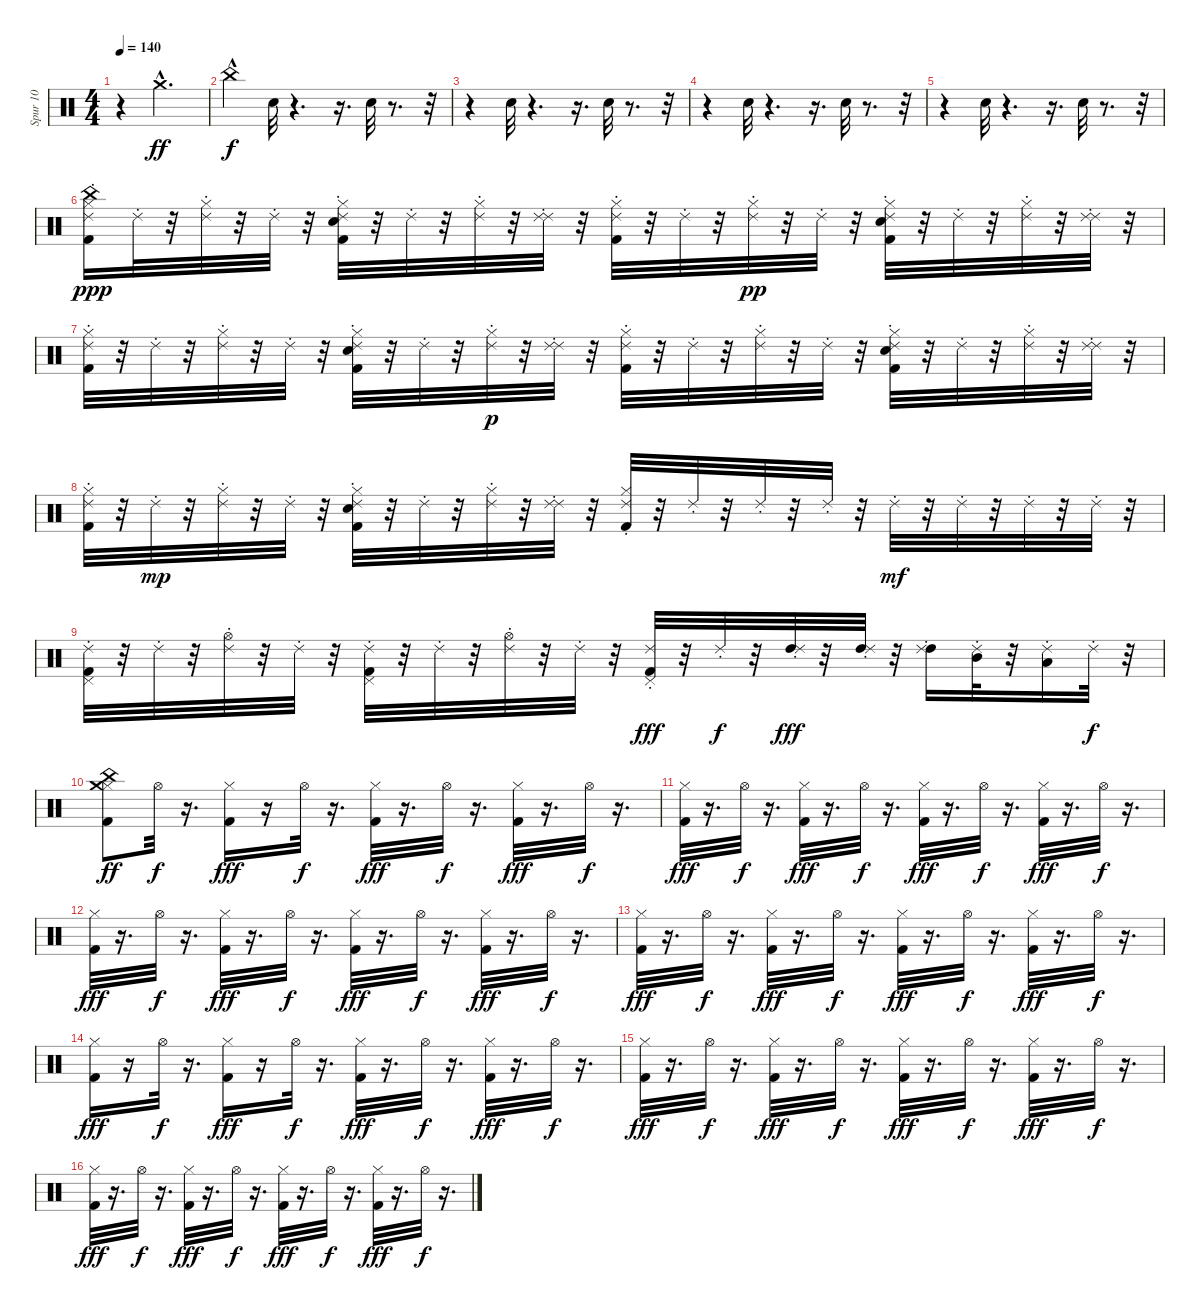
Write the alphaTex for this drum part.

\track ("Spur 10" "Spur 10") {instrument percussion}
\staff {score}
\articulation defaults
\ts (4 4)
\tempo 140
\clef neutral
\ks c
r.4{dy ff} "Crash medium (hit)"{hac}.2{d} |
"China (hit)"{hac}.4{dy f} "Hand Clap (hit)".32 r.4{d} r.16{d} "Hand Clap (hit)".32 r.8{d} r.32 |
r.4 "Hand Clap (hit)".32 r.4{d} r.16{d} "Hand Clap (hit)".32 r.8{d} r.32 |
r.4 "Hand Clap (hit)".32 r.4{d} r.16{d} "Hand Clap (hit)".32 r.8{d} r.32 |
r.4 "Hand Clap (hit)".32 r.4{d} r.16{d} "Hand Clap (hit)".32 r.8{d} r.32 |
("Kick (hit) 2" "Hi-Hat (closed)" "China (hit)" "Ride (choke) 2").16{dy ppp} "Ride (choke) 2".32 r.32 ("Hi-Hat (closed)" "Ride (choke) 2").32 r.32 "Ride (choke) 2".32 r.32 ("Kick (hit) 2" "Hi-Hat (closed)" "Ride (choke) 2" "Hand Clap (hit)").32 r.32 "Ride (choke) 2".32 r.32 ("Hi-Hat (closed)" "Ride (choke) 2").32 r.32 ("Ride (choke) 2" "Ride (choke) 2").32 r.32 ("Kick (hit) 2" "Hi-Hat (closed)" "Ride (choke) 2").32 r.32 "Ride (choke) 2".32 r.32 ("Hi-Hat (closed)" "Ride (choke) 2").32{dy pp} r.32 "Ride (choke) 2".32 r.32 ("Kick (hit) 2" "Hi-Hat (closed)" "Ride (choke) 2" "Hand Clap (hit)").32 r.32 "Ride (choke) 2".32 r.32 ("Hi-Hat (closed)" "Ride (choke) 2").32 r.32 ("Ride (choke) 2" "Ride (choke) 2").32 r.32 |
("Kick (hit) 2" "Hi-Hat (closed)" "Ride (choke) 2").32 r.32 "Ride (choke) 2".32 r.32 ("Hi-Hat (closed)" "Ride (choke) 2").32 r.32 "Ride (choke) 2".32 r.32 ("Kick (hit) 2" "Hi-Hat (closed)" "Ride (choke) 2" "Hand Clap (hit)").32 r.32 "Ride (choke) 2".32 r.32 ("Hi-Hat (closed)" "Ride (choke) 2").32{dy p} r.32 ("Ride (choke) 2" "Ride (choke) 2").32 r.32 ("Kick (hit) 2" "Hi-Hat (closed)" "Ride (choke) 2").32 r.32 "Ride (choke) 2".32 r.32 ("Hi-Hat (closed)" "Ride (choke) 2").32 r.32 "Ride (choke) 2".32 r.32 ("Kick (hit) 2" "Hi-Hat (closed)" "Ride (choke) 2" "Hand Clap (hit)").32 r.32 "Ride (choke) 2".32 r.32 ("Hi-Hat (closed)" "Ride (choke) 2").32 r.32 ("Ride (choke) 2" "Ride (choke) 2").32 r.32 |
("Kick (hit) 2" "Hi-Hat (closed)" "Ride (choke) 2").32 r.32 "Ride (choke) 2".32{dy mp} r.32 ("Hi-Hat (closed)" "Ride (choke) 2").32 r.32 "Ride (choke) 2".32 r.32 ("Kick (hit) 2" "Hi-Hat (closed)" "Ride (choke) 2" "Hand Clap (hit)").32 r.32 "Ride (choke) 2".32 r.32 ("Hi-Hat (closed)" "Ride (choke) 2").32 r.32 ("Ride (choke) 2" "Ride (choke) 2").32 r.32 ("Kick (hit) 2" "Hi-Hat (closed)" "Ride (choke) 2").32 r.32 "Ride (choke) 2".32 r.32 "Ride (choke) 2".32 r.32 "Ride (choke) 2".32 r.32 "Ride (choke) 2".32{dy mf} r.32 "Ride (choke) 2".32 r.32 "Ride (choke) 2".32 r.32 "Ride (choke) 2".32 r.32 |
("Kick (hit) 2" "Pedal Hi-Hat (hit)" "Ride (choke) 2").32 r.32 "Ride (choke) 2".32 r.32 ("Hi-Hat (open)" "Ride (choke) 2").32 r.32 "Ride (choke) 2".32 r.32 ("Kick (hit) 2" "Pedal Hi-Hat (hit)" "Ride (choke) 2").32 r.32 "Ride (choke) 2".32 r.32 ("Hi-Hat (open)" "Ride (choke) 2").32 r.32 "Ride (choke) 2".32 r.32 ("Kick (hit) 2" "Pedal Hi-Hat (hit)" "Ride (choke) 2").32{dy fff} r.32 "Ride (choke) 2".32{dy f} r.32 ("High Tom (hit)" "Ride (choke) 2").32{dy fff} r.32 ("High Tom (hit)" "Ride (choke) 2").32 r.32 ("High Tom (hit)" "Ride (choke) 2").16 ("Mid Tom (hit)" "Ride (choke) 2").32 r.32 ("Low Tom (hit)" "Ride (choke) 2").16 "Ride (choke) 2".32{dy f} r.32 |
("Kick (hit) 2" "Hi-Hat (closed)" "China (hit)" "Crash medium (hit)").8{dy ff} "Hi-Hat (open)".32{dy f} r.16{d} ("Kick (hit) 2" "Hi-Hat (closed)").16{dy fff} r.16 "Hi-Hat (open)".32{dy f} r.16{d} ("Kick (hit) 2" "Hi-Hat (closed)").32{dy fff} r.16{d} "Hi-Hat (open)".32{dy f} r.16{d} ("Kick (hit) 2" "Hi-Hat (closed)").32{dy fff} r.16{d} "Hi-Hat (open)".32{dy f} r.16{d} |
("Kick (hit) 2" "Hi-Hat (closed)").32{dy fff} r.16{d} "Hi-Hat (open)".32{dy f} r.16{d} ("Kick (hit) 2" "Hi-Hat (closed)").32{dy fff} r.16{d} "Hi-Hat (open)".32{dy f} r.16{d} ("Kick (hit) 2" "Hi-Hat (closed)").32{dy fff} r.16{d} "Hi-Hat (open)".32{dy f} r.16{d} ("Kick (hit) 2" "Hi-Hat (closed)").32{dy fff} r.16{d} "Hi-Hat (open)".32{dy f} r.16{d} |
("Kick (hit) 2" "Hi-Hat (closed)").32{dy fff} r.16{d} "Hi-Hat (open)".32{dy f} r.16{d} ("Kick (hit) 2" "Hi-Hat (closed)").32{dy fff} r.16{d} "Hi-Hat (open)".32{dy f} r.16{d} ("Kick (hit) 2" "Hi-Hat (closed)").32{dy fff} r.16{d} "Hi-Hat (open)".32{dy f} r.16{d} ("Kick (hit) 2" "Hi-Hat (closed)").32{dy fff} r.16{d} "Hi-Hat (open)".32{dy f} r.16{d} |
("Kick (hit) 2" "Hi-Hat (closed)").32{dy fff} r.16{d} "Hi-Hat (open)".32{dy f} r.16{d} ("Kick (hit) 2" "Hi-Hat (closed)").32{dy fff} r.16{d} "Hi-Hat (open)".32{dy f} r.16{d} ("Kick (hit) 2" "Hi-Hat (closed)").32{dy fff} r.16{d} "Hi-Hat (open)".32{dy f} r.16{d} ("Kick (hit) 2" "Hi-Hat (closed)").32{dy fff} r.16{d} "Hi-Hat (open)".32{dy f} r.16{d} |
("Kick (hit) 2" "Hi-Hat (closed)").16{dy fff} r.16 "Hi-Hat (open)".32{dy f} r.16{d} ("Kick (hit) 2" "Hi-Hat (closed)").16{dy fff} r.16 "Hi-Hat (open)".32{dy f} r.16{d} ("Kick (hit) 2" "Hi-Hat (closed)").32{dy fff} r.16{d} "Hi-Hat (open)".32{dy f} r.16{d} ("Kick (hit) 2" "Hi-Hat (closed)").32{dy fff} r.16{d} "Hi-Hat (open)".32{dy f} r.16{d} |
("Kick (hit) 2" "Hi-Hat (closed)").32{dy fff} r.16{d} "Hi-Hat (open)".32{dy f} r.16{d} ("Kick (hit) 2" "Hi-Hat (closed)").32{dy fff} r.16{d} "Hi-Hat (open)".32{dy f} r.16{d} ("Kick (hit) 2" "Hi-Hat (closed)").32{dy fff} r.16{d} "Hi-Hat (open)".32{dy f} r.16{d} ("Kick (hit) 2" "Hi-Hat (closed)").32{dy fff} r.16{d} "Hi-Hat (open)".32{dy f} r.16{d} |
("Kick (hit) 2" "Hi-Hat (closed)").32{dy fff} r.16{d} "Hi-Hat (open)".32{dy f} r.16{d} ("Kick (hit) 2" "Hi-Hat (closed)").32{dy fff} r.16{d} "Hi-Hat (open)".32{dy f} r.16{d} ("Kick (hit) 2" "Hi-Hat (closed)").32{dy fff} r.16{d} "Hi-Hat (open)".32{dy f} r.16{d} ("Kick (hit) 2" "Hi-Hat (closed)").32{dy fff} r.16{d} "Hi-Hat (open)".32{dy f} r.16{d}
